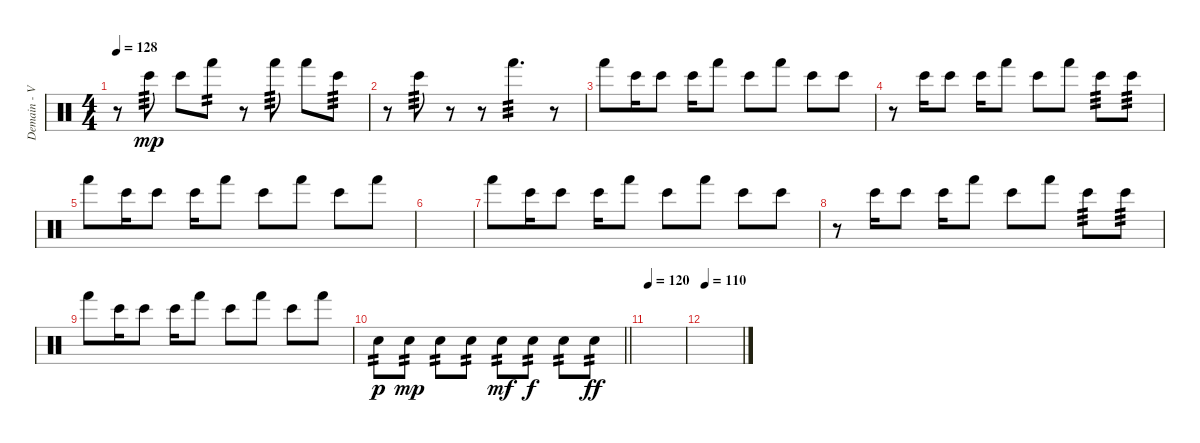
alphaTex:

\track ("Demain - Various Perc." "Demain - V") {instrument percussion}
\staff {score}
\articulation defaults
\ts (4 4)
\tempo 128
\clef neutral
\ks c
r.8{dy mp} "Bongo High (hit)".8{tp 3} "Bongo High (hit)".8 "Hand (hit)".8{tp 2} r.8 "Hand (hit)".8{tp 3} "Hand (hit)".8 "Bongo High (hit)".8{tp 3} |
r.8 "Bongo High (hit)".8{tp 3} r.8 r.8 "Hand (hit)".4{d tp 3} r.8 |
"Hand (hit)".8 "Bongo High (hit)".16 "Bongo High (hit)".8 "Bongo High (hit)".16 "Hand (hit)".8 "Bongo High (hit)".8 "Hand (hit)".8 "Bongo High (hit)".8 "Bongo High (hit)".8 |
r.8 "Bongo High (hit)".16 "Bongo High (hit)".8 "Bongo High (hit)".16 "Hand (hit)".8 "Bongo High (hit)".8 "Hand (hit)".8 "Bongo High (hit)".8{tp 3} "Bongo High (hit)".8{tp 3} |
"Hand (hit)".8 "Bongo High (hit)".16 "Bongo High (hit)".8 "Bongo High (hit)".16 "Hand (hit)".8 "Bongo High (hit)".8 "Hand (hit)".8 "Bongo High (hit)".8 "Hand (hit)".8 |
|
"Hand (hit)".8 "Bongo High (hit)".16 "Bongo High (hit)".8 "Bongo High (hit)".16 "Hand (hit)".8 "Bongo High (hit)".8 "Hand (hit)".8 "Bongo High (hit)".8 "Bongo High (hit)".8 |
r.8 "Bongo High (hit)".16 "Bongo High (hit)".8 "Bongo High (hit)".16 "Hand (hit)".8 "Bongo High (hit)".8 "Hand (hit)".8 "Bongo High (hit)".8{tp 3} "Bongo High (hit)".8{tp 3} |
"Hand (hit)".8 "Bongo High (hit)".16 "Bongo High (hit)".8 "Bongo High (hit)".16 "Hand (hit)".8 "Bongo High (hit)".8 "Hand (hit)".8 "Bongo High (hit)".8 "Hand (hit)".8 |
\barLineRight lightlight "Electric Snare (hit)".8{tp 2 dy p} "Electric Snare (hit)".8{tp 2 dy mp} "Electric Snare (hit)".8{tp 2} "Electric Snare (hit)".8{tp 2} "Electric Snare (hit)".8{tp 2 dy mf} "Electric Snare (hit)".8{tp 2 dy f} "Electric Snare (hit)".8{tp 2} "Electric Snare (hit)".8{tp 2 dy ff}
|
\tempo 120
|
\tempo 110
